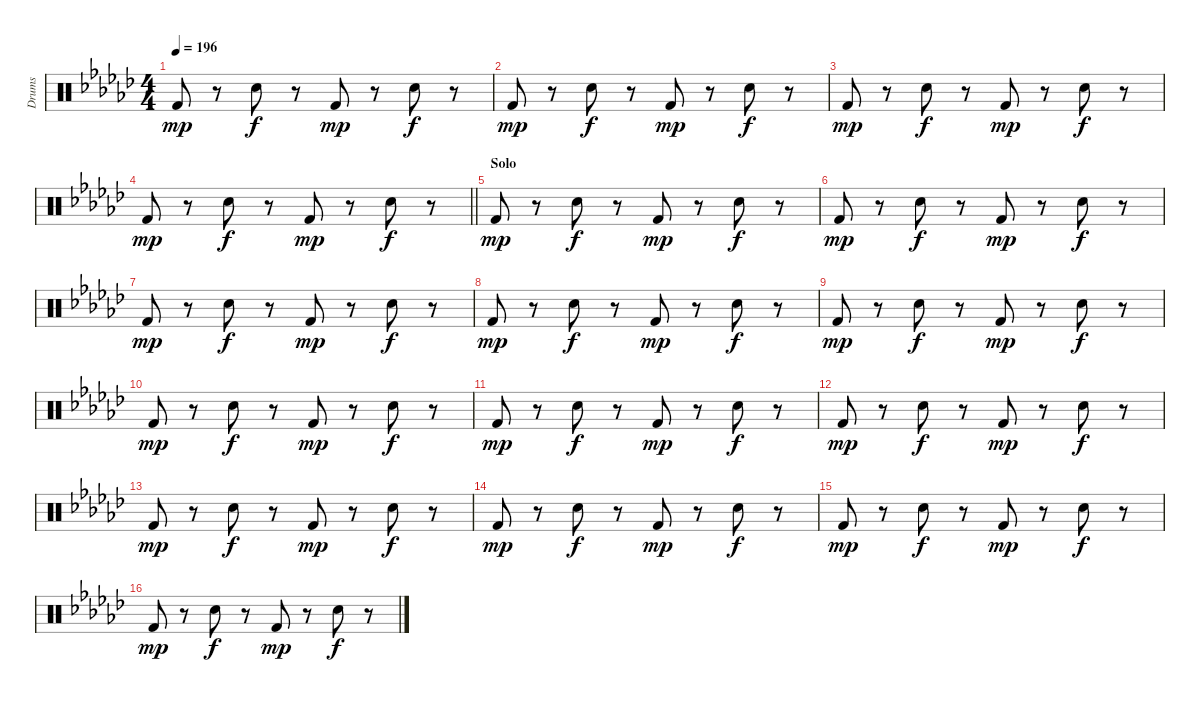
\track ("Drums" "Drums") {instrument percussion}
\staff {score}
\articulation defaults
\ts (4 4)
\tempo 196
\clef neutral
\ks gb "Kick (hit) 2".8{dy mp}
r.8 "Snare (hit) 2".8{dy f} r.8 "Kick (hit) 2".8{dy mp} r.8 "Snare (hit) 2".8{dy f} r.8 |
"Kick (hit) 2".8{dy mp} r.8 "Snare (hit) 2".8{dy f} r.8 "Kick (hit) 2".8{dy mp} r.8 "Snare (hit) 2".8{dy f} r.8 |
"Kick (hit) 2".8{dy mp} r.8 "Snare (hit) 2".8{dy f} r.8 "Kick (hit) 2".8{dy mp} r.8 "Snare (hit) 2".8{dy f} r.8 |
\barLineRight lightlight "Kick (hit) 2".8{dy mp}
r.8 "Snare (hit) 2".8{dy f} r.8 "Kick (hit) 2".8{dy mp} r.8 "Snare (hit) 2".8{dy f} r.8 |
\section ("" "Solo")
"Kick (hit) 2".8{dy mp} r.8 "Snare (hit) 2".8{dy f} r.8 "Kick (hit) 2".8{dy mp} r.8 "Snare (hit) 2".8{dy f} r.8 |
"Kick (hit) 2".8{dy mp} r.8 "Snare (hit) 2".8{dy f} r.8 "Kick (hit) 2".8{dy mp} r.8 "Snare (hit) 2".8{dy f} r.8 |
"Kick (hit) 2".8{dy mp} r.8 "Snare (hit) 2".8{dy f} r.8 "Kick (hit) 2".8{dy mp} r.8 "Snare (hit) 2".8{dy f} r.8 |
"Kick (hit) 2".8{dy mp} r.8 "Snare (hit) 2".8{dy f} r.8 "Kick (hit) 2".8{dy mp} r.8 "Snare (hit) 2".8{dy f} r.8 |
"Kick (hit) 2".8{dy mp} r.8 "Snare (hit) 2".8{dy f} r.8 "Kick (hit) 2".8{dy mp} r.8 "Snare (hit) 2".8{dy f} r.8 |
"Kick (hit) 2".8{dy mp} r.8 "Snare (hit) 2".8{dy f} r.8 "Kick (hit) 2".8{dy mp} r.8 "Snare (hit) 2".8{dy f} r.8 |
"Kick (hit) 2".8{dy mp} r.8 "Snare (hit) 2".8{dy f} r.8 "Kick (hit) 2".8{dy mp} r.8 "Snare (hit) 2".8{dy f} r.8 |
"Kick (hit) 2".8{dy mp} r.8 "Snare (hit) 2".8{dy f} r.8 "Kick (hit) 2".8{dy mp} r.8 "Snare (hit) 2".8{dy f} r.8 |
"Kick (hit) 2".8{dy mp} r.8 "Snare (hit) 2".8{dy f} r.8 "Kick (hit) 2".8{dy mp} r.8 "Snare (hit) 2".8{dy f} r.8 |
"Kick (hit) 2".8{dy mp} r.8 "Snare (hit) 2".8{dy f} r.8 "Kick (hit) 2".8{dy mp} r.8 "Snare (hit) 2".8{dy f} r.8 |
"Kick (hit) 2".8{dy mp} r.8 "Snare (hit) 2".8{dy f} r.8 "Kick (hit) 2".8{dy mp} r.8 "Snare (hit) 2".8{dy f} r.8 |
"Kick (hit) 2".8{dy mp} r.8 "Snare (hit) 2".8{dy f} r.8 "Kick (hit) 2".8{dy mp} r.8 "Snare (hit) 2".8{dy f} r.8
